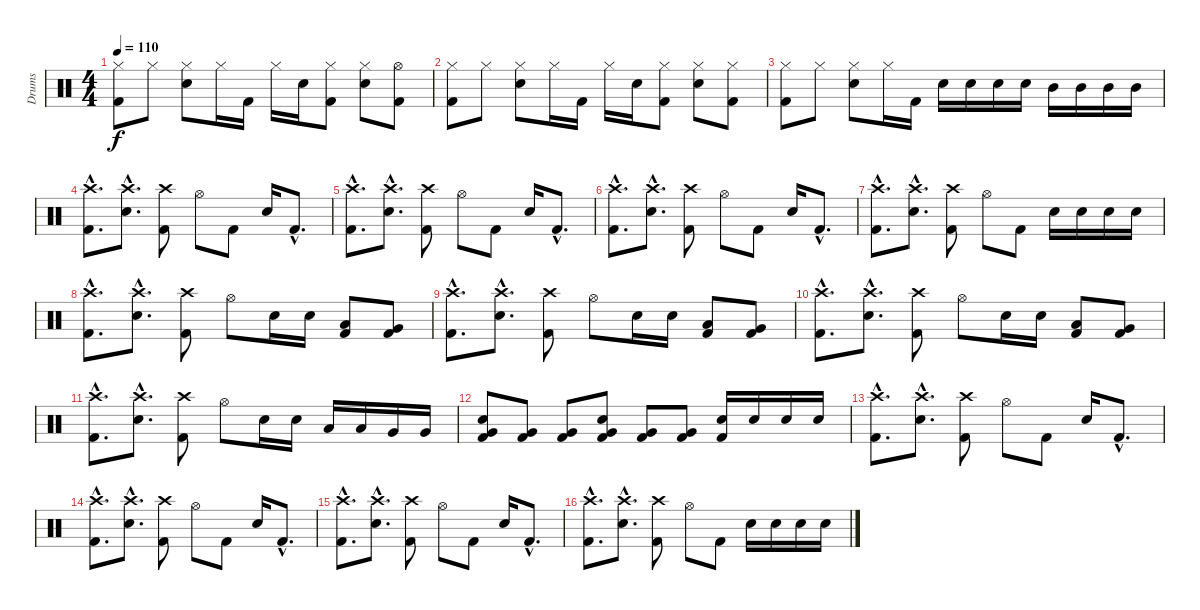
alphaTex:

\track ("Drums" "Drums") {instrument percussion}
\staff {score}
\articulation defaults
\ts (4 4)
\tempo 110
\clef neutral
\ks c
("Hi-Hat (closed)" "Kick (hit) 2").8{dy f} "Hi-Hat (closed)".8 ("Hi-Hat (closed)" "Snare (hit) 2").8 "Hi-Hat (closed)".16 "Kick (hit) 2".16 "Hi-Hat (closed)".16 "Snare (hit) 2".16 ("Hi-Hat (closed)" "Kick (hit) 2").8 ("Hi-Hat (closed)" "Snare (hit) 2").8 ("Hi-Hat (open)" "Kick (hit) 2").8 |
("Hi-Hat (closed)" "Kick (hit) 2").8 "Hi-Hat (closed)".8 ("Hi-Hat (closed)" "Snare (hit) 2").8 "Hi-Hat (closed)".16 "Kick (hit) 2".16 "Hi-Hat (closed)".16 "Snare (hit) 2".16 ("Hi-Hat (closed)" "Kick (hit) 2").8 ("Hi-Hat (closed)" "Snare (hit) 2").8 ("Hi-Hat (closed)" "Kick (hit) 2").8 |
("Hi-Hat (closed)" "Kick (hit) 2").8 "Hi-Hat (closed)".8 ("Hi-Hat (closed)" "Snare (hit) 2").8 "Hi-Hat (closed)".16 "Kick (hit) 2".16 "Snare (hit) 2".16 "Snare (hit) 2".16 "Snare (hit) 2".16 "Snare (hit) 2".16 "Mid Tom (hit)".16 "Mid Tom (hit)".16 "Mid Tom (hit)".16 "Mid Tom (hit)".16 |
("Crash high (hit)"{hac} "Kick (hit) 2"{hac}).8{d} ("Crash high (hit)"{hac} "Snare (hit) 2"{hac}).8{d} ("Crash high (hit)" "Kick (hit) 2").8 "Hi-Hat (open)".8 "Kick (hit) 2".8 "Snare (hit) 2".16 "Kick (hit) 2"{hac}.8{d} |
("Crash high (hit)"{hac} "Kick (hit) 2"{hac}).8{d} ("Crash high (hit)"{hac} "Snare (hit) 2"{hac}).8{d} ("Crash high (hit)" "Kick (hit) 2").8 "Hi-Hat (open)".8 "Kick (hit) 2".8 "Snare (hit) 2".16 "Kick (hit) 2"{hac}.8{d} |
("Crash high (hit)"{hac} "Kick (hit) 2"{hac}).8{d} ("Crash high (hit)"{hac} "Snare (hit) 2"{hac}).8{d} ("Crash high (hit)" "Kick (hit) 2").8 "Hi-Hat (open)".8 "Kick (hit) 2".8 "Snare (hit) 2".16 "Kick (hit) 2"{hac}.8{d} |
("Crash high (hit)"{hac} "Kick (hit) 2"{hac}).8{d} ("Crash high (hit)"{hac} "Snare (hit) 2"{hac}).8{d} ("Crash high (hit)" "Kick (hit) 2").8 "Hi-Hat (open)".8 "Kick (hit) 2".8 "Snare (hit) 2".16 "Snare (hit) 2".16 "Snare (hit) 2".16 "Snare (hit) 2".16 |
("Crash high (hit)"{hac} "Kick (hit) 2"{hac}).8{d} ("Crash high (hit)"{hac} "Snare (hit) 2"{hac}).8{d} ("Crash high (hit)" "Kick (hit) 2").8 "Hi-Hat (open)".8 "Snare (hit) 2".16 "Snare (hit) 2".16 ("Low Tom (hit)" "Kick (hit) 2").8 ("Very Low Tom (hit)" "Kick (hit) 2").8 |
("Crash high (hit)"{hac} "Kick (hit) 2"{hac}).8{d} ("Crash high (hit)"{hac} "Snare (hit) 2"{hac}).8{d} ("Crash high (hit)" "Kick (hit) 2").8 "Hi-Hat (open)".8 "Snare (hit) 2".16 "Snare (hit) 2".16 ("Low Tom (hit)" "Kick (hit) 2").8 ("Very Low Tom (hit)" "Kick (hit) 2").8 |
("Crash high (hit)"{hac} "Kick (hit) 2"{hac}).8{d} ("Crash high (hit)"{hac} "Snare (hit) 2"{hac}).8{d} ("Crash high (hit)" "Kick (hit) 2").8 "Hi-Hat (open)".8 "Snare (hit) 2".16 "Snare (hit) 2".16 ("Low Tom (hit)" "Kick (hit) 2").8 ("Very Low Tom (hit)" "Kick (hit) 2").8 |
("Crash high (hit)"{hac} "Kick (hit) 2"{hac}).8{d} ("Crash high (hit)"{hac} "Snare (hit) 2"{hac}).8{d} ("Crash high (hit)" "Kick (hit) 2").8 "Hi-Hat (open)".8 "Snare (hit) 2".16 "Snare (hit) 2".16 "Low Tom (hit)".16 "Low Tom (hit)".16 "Very Low Tom (hit)".16 "Very Low Tom (hit)".16 |
("Very Low Tom (hit)" "Snare (hit) 2" "Kick (hit) 2").8 ("Very Low Tom (hit)" "Kick (hit) 2").8 ("Very Low Tom (hit)" "Kick (hit) 2").8 ("Very Low Tom (hit)" "Snare (hit) 2" "Kick (hit) 2").8 ("Very Low Tom (hit)" "Kick (hit) 2").8 ("Very Low Tom (hit)" "Kick (hit) 2").8 ("Snare (hit) 2" "Kick (hit) 2").16 "Snare (hit) 2".16 "Snare (hit) 2".16 "Snare (hit) 2".16 |
("Crash high (hit)"{hac} "Kick (hit) 2"{hac}).8{d} ("Crash high (hit)"{hac} "Snare (hit) 2"{hac}).8{d} ("Crash high (hit)" "Kick (hit) 2").8 "Hi-Hat (open)".8 "Kick (hit) 2".8 "Snare (hit) 2".16 "Kick (hit) 2"{hac}.8{d} |
("Crash high (hit)"{hac} "Kick (hit) 2"{hac}).8{d} ("Crash high (hit)"{hac} "Snare (hit) 2"{hac}).8{d} ("Crash high (hit)" "Kick (hit) 2").8 "Hi-Hat (open)".8 "Kick (hit) 2".8 "Snare (hit) 2".16 "Kick (hit) 2"{hac}.8{d} |
("Crash high (hit)"{hac} "Kick (hit) 2"{hac}).8{d} ("Crash high (hit)"{hac} "Snare (hit) 2"{hac}).8{d} ("Crash high (hit)" "Kick (hit) 2").8 "Hi-Hat (open)".8 "Kick (hit) 2".8 "Snare (hit) 2".16 "Kick (hit) 2"{hac}.8{d} |
("Crash high (hit)"{hac} "Kick (hit) 2"{hac}).8{d} ("Crash high (hit)"{hac} "Snare (hit) 2"{hac}).8{d} ("Crash high (hit)" "Kick (hit) 2").8 "Hi-Hat (open)".8 "Kick (hit) 2".8 "Snare (hit) 2".16 "Snare (hit) 2".16 "Snare (hit) 2".16 "Snare (hit) 2".16
